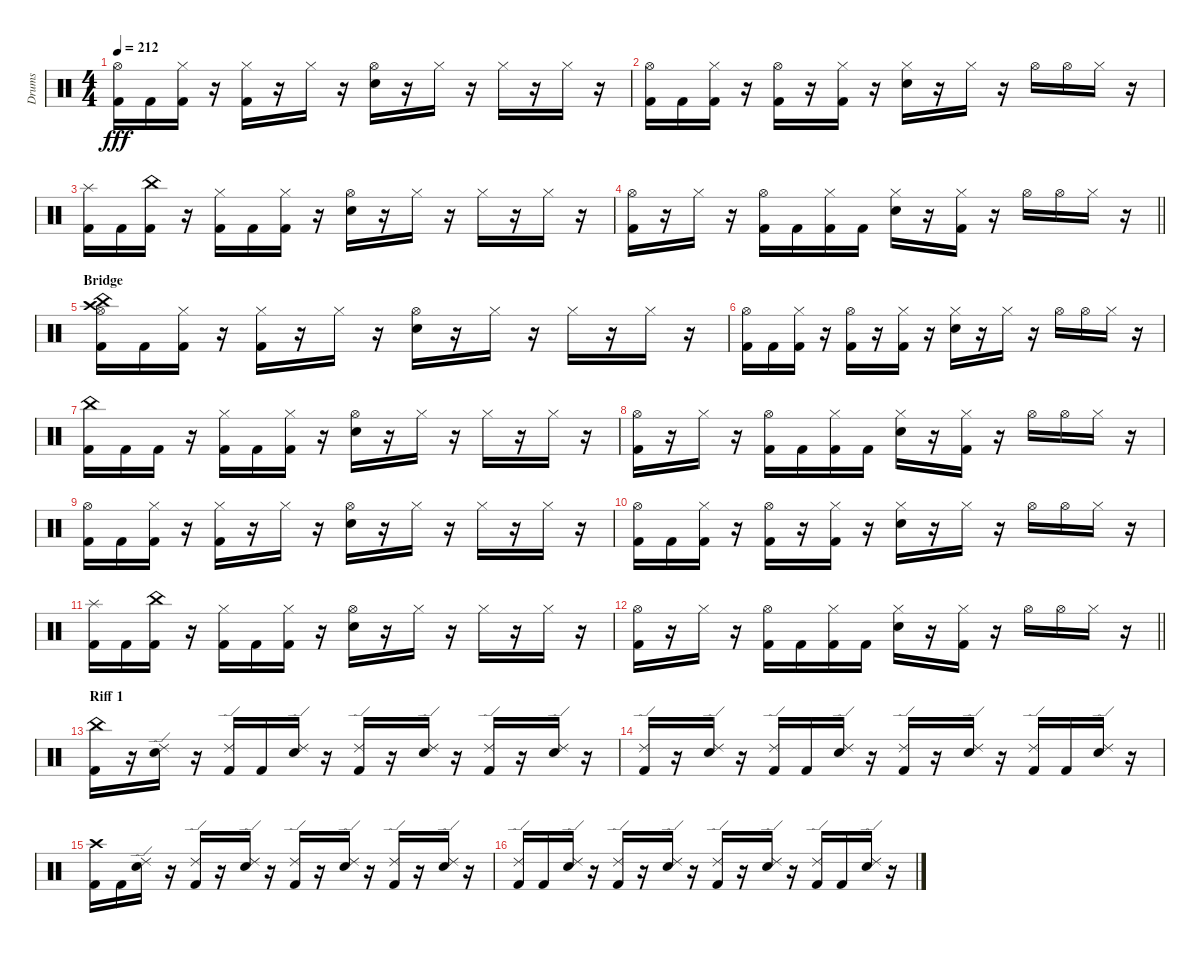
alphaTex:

\track ("Drums" "Drums") {instrument percussion}
\staff {score}
\articulation defaults
\ts (4 4)
\tempo 212
\clef neutral
\ks c
("Kick (hit) 2" "Hi-Hat (open)").16{dy fff} "Kick (hit) 2".16 ("Kick (hit) 2" "Hi-Hat (closed)").16 r.16 ("Kick (hit) 2" "Hi-Hat (closed)").16 r.16 "Hi-Hat (closed)".16 r.16 ("Snare (hit) 2" "Hi-Hat (open)").16 r.16 "Hi-Hat (closed)".16 r.16 "Hi-Hat (closed)".16 r.16 "Hi-Hat (closed)".16 r.16 |
("Kick (hit) 2" "Hi-Hat (open)").16 "Kick (hit) 2".16 ("Kick (hit) 2" "Hi-Hat (closed)").16 r.16 ("Kick (hit) 2" "Hi-Hat (open)").16 r.16 ("Kick (hit) 2" "Hi-Hat (closed)").16 r.16 ("Snare (hit) 2" "Hi-Hat (closed)").16 r.16 "Hi-Hat (closed)".16 r.16 "Hi-Hat (open)".16 "Hi-Hat (open)".16 "Hi-Hat (closed)".16 r.16 |
("Kick (hit) 2" "Splash (hit)").16 "Kick (hit) 2".16 ("Kick (hit) 2" "China (hit)").16 r.16 ("Kick (hit) 2" "Hi-Hat (closed)").16 "Kick (hit) 2".16 ("Kick (hit) 2" "Hi-Hat (closed)").16 r.16 ("Snare (hit) 2" "Hi-Hat (open)").16 r.16 "Hi-Hat (closed)".16 r.16 "Hi-Hat (closed)".16 r.16 "Hi-Hat (closed)".16 r.16 |
\barLineRight lightlight
("Kick (hit) 2" "Hi-Hat (open)").16 r.16 "Hi-Hat (closed)".16 r.16 ("Kick (hit) 2" "Hi-Hat (open)").16 "Kick (hit) 2".16 ("Kick (hit) 2" "Hi-Hat (closed)").16 "Kick (hit) 2".16 ("Snare (hit) 2" "Hi-Hat (closed)").16 r.16 ("Kick (hit) 2" "Hi-Hat (closed)").16 r.16 "Hi-Hat (open)".16 "Hi-Hat (open)".16 "Hi-Hat (closed)".16 r.16 |
\section ("" "Bridge")
("Kick (hit) 2" "Hi-Hat (open)" "Crash high (hit)" "China (hit)").16 "Kick (hit) 2".16 ("Kick (hit) 2" "Hi-Hat (closed)").16 r.16 ("Kick (hit) 2" "Hi-Hat (closed)").16 r.16 "Hi-Hat (closed)".16 r.16 ("Snare (hit) 2" "Hi-Hat (open)").16 r.16 "Hi-Hat (closed)".16 r.16 "Hi-Hat (closed)".16 r.16 "Hi-Hat (closed)".16 r.16 |
("Kick (hit) 2" "Hi-Hat (open)").16 "Kick (hit) 2".16 ("Kick (hit) 2" "Hi-Hat (closed)").16 r.16 ("Kick (hit) 2" "Hi-Hat (open)").16 r.16 ("Kick (hit) 2" "Hi-Hat (closed)").16 r.16 ("Snare (hit) 2" "Hi-Hat (closed)").16 r.16 "Hi-Hat (closed)".16 r.16 "Hi-Hat (open)".16 "Hi-Hat (open)".16 "Hi-Hat (closed)".16 r.16 |
("Kick (hit) 2" "China (hit)").16 "Kick (hit) 2".16 "Kick (hit) 2".16 r.16 ("Kick (hit) 2" "Hi-Hat (closed)").16 "Kick (hit) 2".16 ("Kick (hit) 2" "Hi-Hat (closed)").16 r.16 ("Snare (hit) 2" "Hi-Hat (open)").16 r.16 "Hi-Hat (closed)".16 r.16 "Hi-Hat (closed)".16 r.16 "Hi-Hat (closed)".16 r.16 |
("Kick (hit) 2" "Hi-Hat (open)").16 r.16 "Hi-Hat (closed)".16 r.16 ("Kick (hit) 2" "Hi-Hat (open)").16 "Kick (hit) 2".16 ("Kick (hit) 2" "Hi-Hat (closed)").16 "Kick (hit) 2".16 ("Snare (hit) 2" "Hi-Hat (closed)").16 r.16 ("Kick (hit) 2" "Hi-Hat (closed)").16 r.16 "Hi-Hat (open)".16 "Hi-Hat (open)".16 "Hi-Hat (closed)".16 r.16 |
("Kick (hit) 2" "Hi-Hat (open)").16 "Kick (hit) 2".16 ("Kick (hit) 2" "Hi-Hat (closed)").16 r.16 ("Kick (hit) 2" "Hi-Hat (closed)").16 r.16 "Hi-Hat (closed)".16 r.16 ("Snare (hit) 2" "Hi-Hat (open)").16 r.16 "Hi-Hat (closed)".16 r.16 "Hi-Hat (closed)".16 r.16 "Hi-Hat (closed)".16 r.16 |
("Kick (hit) 2" "Hi-Hat (open)").16 "Kick (hit) 2".16 ("Kick (hit) 2" "Hi-Hat (closed)").16 r.16 ("Kick (hit) 2" "Hi-Hat (open)").16 r.16 ("Kick (hit) 2" "Hi-Hat (closed)").16 r.16 ("Snare (hit) 2" "Hi-Hat (closed)").16 r.16 "Hi-Hat (closed)".16 r.16 "Hi-Hat (open)".16 "Hi-Hat (open)".16 "Hi-Hat (closed)".16 r.16 |
("Kick (hit) 2" "Splash (hit)").16 "Kick (hit) 2".16 ("Kick (hit) 2" "China (hit)").16 r.16 ("Kick (hit) 2" "Hi-Hat (closed)").16 "Kick (hit) 2".16 ("Kick (hit) 2" "Hi-Hat (closed)").16 r.16 ("Snare (hit) 2" "Hi-Hat (open)").16 r.16 "Hi-Hat (closed)".16 r.16 "Hi-Hat (closed)".16 r.16 "Hi-Hat (closed)".16 r.16 |
\barLineRight lightlight
("Kick (hit) 2" "Hi-Hat (open)").16 r.16 "Hi-Hat (closed)".16 r.16 ("Kick (hit) 2" "Hi-Hat (open)").16 "Kick (hit) 2".16 ("Kick (hit) 2" "Hi-Hat (closed)").16 "Kick (hit) 2".16 ("Snare (hit) 2" "Hi-Hat (closed)").16 r.16 ("Kick (hit) 2" "Hi-Hat (closed)").16 r.16 "Hi-Hat (open)".16 "Hi-Hat (open)".16 "Hi-Hat (closed)".16 r.16 |
\section ("" "Riff 1")
("Kick (hit) 2" "China (hit)").16 r.16 ("Snare (hit) 2" "Ride (edge) 2").16 r.16 ("Kick (hit) 2" "Ride (edge) 2").16 "Kick (hit) 2".16 ("Snare (hit) 2" "Ride (edge) 2").16 r.16 ("Kick (hit) 2" "Ride (edge) 2").16 r.16 ("Snare (hit) 2" "Ride (edge) 2").16 r.16 ("Kick (hit) 2" "Ride (edge) 2").16 r.16 ("Snare (hit) 2" "Ride (edge) 2").16 r.16 |
("Kick (hit) 2" "Ride (edge) 2").16 r.16 ("Snare (hit) 2" "Ride (edge) 2").16 r.16 ("Kick (hit) 2" "Ride (edge) 2").16 "Kick (hit) 2".16 ("Snare (hit) 2" "Ride (edge) 2").16 r.16 ("Kick (hit) 2" "Ride (edge) 2").16 r.16 ("Snare (hit) 2" "Ride (edge) 2").16 r.16 ("Kick (hit) 2" "Ride (edge) 2").16 "Kick (hit) 2".16 ("Snare (hit) 2" "Ride (edge) 2").16 r.16 |
("Kick (hit) 2" "Crash high (hit)").16 "Kick (hit) 2".16 ("Snare (hit) 2" "Ride (edge) 2").16 r.16 ("Kick (hit) 2" "Ride (edge) 2").16 r.16 ("Snare (hit) 2" "Ride (edge) 2").16 r.16 ("Kick (hit) 2" "Ride (edge) 2").16 r.16 ("Snare (hit) 2" "Ride (edge) 2").16 r.16 ("Kick (hit) 2" "Ride (edge) 2").16 r.16 ("Snare (hit) 2" "Ride (edge) 2").16 r.16 |
("Kick (hit) 2" "Ride (edge) 2").16 "Kick (hit) 2".16 ("Snare (hit) 2" "Ride (edge) 2").16 r.16 ("Kick (hit) 2" "Ride (edge) 2").16 r.16 ("Snare (hit) 2" "Ride (edge) 2").16 r.16 ("Kick (hit) 2" "Ride (edge) 2").16 r.16 ("Snare (hit) 2" "Ride (edge) 2").16 r.16 ("Kick (hit) 2" "Ride (edge) 2").16 "Kick (hit) 2".16 ("Snare (hit) 2" "Ride (edge) 2").16 r.16
